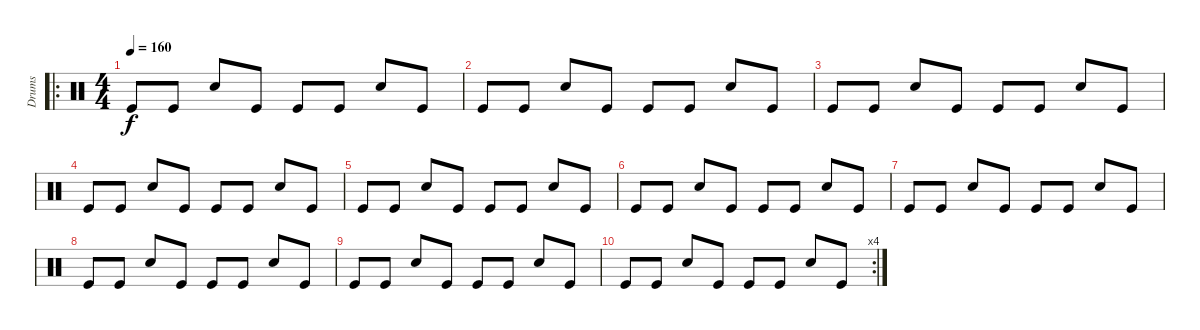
\track ("Drums" "Drums") {instrument percussion}
\staff {score}
\articulation defaults
\ro
\ts (4 4)
\tempo 160
\clef neutral
\ks c "Kick (hit)".8{dy f} "Kick (hit)".8 "Snare (hit) 2".8 "Kick (hit)".8 "Kick (hit)".8 "Kick (hit)".8 "Snare (hit) 2".8 "Kick (hit)".8
|
"Kick (hit)".8 "Kick (hit)".8 "Snare (hit) 2".8 "Kick (hit)".8 "Kick (hit)".8 "Kick (hit)".8 "Snare (hit) 2".8 "Kick (hit)".8 |
"Kick (hit)".8 "Kick (hit)".8 "Snare (hit) 2".8 "Kick (hit)".8 "Kick (hit)".8 "Kick (hit)".8 "Snare (hit) 2".8 "Kick (hit)".8 |
"Kick (hit)".8 "Kick (hit)".8 "Snare (hit) 2".8 "Kick (hit)".8 "Kick (hit)".8 "Kick (hit)".8 "Snare (hit) 2".8 "Kick (hit)".8 |
"Kick (hit)".8 "Kick (hit)".8 "Snare (hit) 2".8 "Kick (hit)".8 "Kick (hit)".8 "Kick (hit)".8 "Snare (hit) 2".8 "Kick (hit)".8 |
"Kick (hit)".8 "Kick (hit)".8 "Snare (hit) 2".8 "Kick (hit)".8 "Kick (hit)".8 "Kick (hit)".8 "Snare (hit) 2".8 "Kick (hit)".8 |
"Kick (hit)".8 "Kick (hit)".8 "Snare (hit) 2".8 "Kick (hit)".8 "Kick (hit)".8 "Kick (hit)".8 "Snare (hit) 2".8 "Kick (hit)".8 |
"Kick (hit)".8 "Kick (hit)".8 "Snare (hit) 2".8 "Kick (hit)".8 "Kick (hit)".8 "Kick (hit)".8 "Snare (hit) 2".8 "Kick (hit)".8 |
"Kick (hit)".8 "Kick (hit)".8 "Snare (hit) 2".8 "Kick (hit)".8 "Kick (hit)".8 "Kick (hit)".8 "Snare (hit) 2".8 "Kick (hit)".8 |
\rc 4 "Kick (hit)".8 "Kick (hit)".8 "Snare (hit) 2".8 "Kick (hit)".8 "Kick (hit)".8 "Kick (hit)".8 "Snare (hit) 2".8 "Kick (hit)".8
